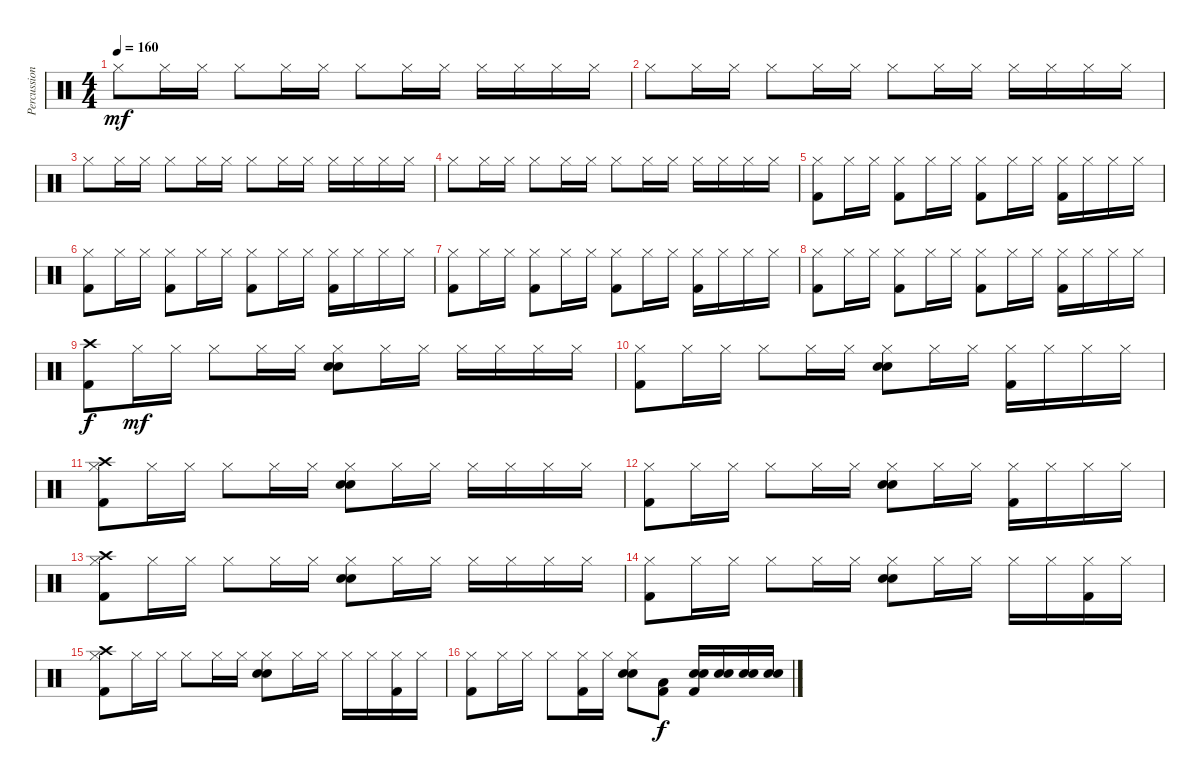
\track ("Percussion" "Percussion") {instrument percussion}
\staff {score}
\articulation defaults
\ts (4 4)
\section ("" "")
\tempo 160
\clef neutral
\ks c "Hi-Hat (closed)".8{dy mf} "Hi-Hat (closed)".16 "Hi-Hat (closed)".16 "Hi-Hat (closed)".8 "Hi-Hat (closed)".16 "Hi-Hat (closed)".16 "Hi-Hat (closed)".8 "Hi-Hat (closed)".16 "Hi-Hat (closed)".16 "Hi-Hat (closed)".16 "Hi-Hat (closed)".16 "Hi-Hat (closed)".16 "Hi-Hat (closed)".16
|
"Hi-Hat (closed)".8 "Hi-Hat (closed)".16 "Hi-Hat (closed)".16 "Hi-Hat (closed)".8 "Hi-Hat (closed)".16 "Hi-Hat (closed)".16 "Hi-Hat (closed)".8 "Hi-Hat (closed)".16 "Hi-Hat (closed)".16 "Hi-Hat (closed)".16 "Hi-Hat (closed)".16 "Hi-Hat (closed)".16 "Hi-Hat (closed)".16 |
"Hi-Hat (closed)".8 "Hi-Hat (closed)".16 "Hi-Hat (closed)".16 "Hi-Hat (closed)".8 "Hi-Hat (closed)".16 "Hi-Hat (closed)".16 "Hi-Hat (closed)".8 "Hi-Hat (closed)".16 "Hi-Hat (closed)".16 "Hi-Hat (closed)".16 "Hi-Hat (closed)".16 "Hi-Hat (closed)".16 "Hi-Hat (closed)".16 |
"Hi-Hat (closed)".8 "Hi-Hat (closed)".16 "Hi-Hat (closed)".16 "Hi-Hat (closed)".8 "Hi-Hat (closed)".16 "Hi-Hat (closed)".16 "Hi-Hat (closed)".8 "Hi-Hat (closed)".16 "Hi-Hat (closed)".16 "Hi-Hat (closed)".16 "Hi-Hat (closed)".16 "Hi-Hat (closed)".16 "Hi-Hat (closed)".16 |
("Hi-Hat (closed)" "Kick (hit) 2").8 "Hi-Hat (closed)".16 "Hi-Hat (closed)".16 ("Hi-Hat (closed)" "Kick (hit) 2").8 "Hi-Hat (closed)".16 "Hi-Hat (closed)".16 ("Hi-Hat (closed)" "Kick (hit) 2").8 "Hi-Hat (closed)".16 "Hi-Hat (closed)".16 ("Hi-Hat (closed)" "Kick (hit) 2").16 "Hi-Hat (closed)".16 "Hi-Hat (closed)".16 "Hi-Hat (closed)".16 |
("Hi-Hat (closed)" "Kick (hit) 2").8 "Hi-Hat (closed)".16 "Hi-Hat (closed)".16 ("Hi-Hat (closed)" "Kick (hit) 2").8 "Hi-Hat (closed)".16 "Hi-Hat (closed)".16 ("Hi-Hat (closed)" "Kick (hit) 2").8 "Hi-Hat (closed)".16 "Hi-Hat (closed)".16 ("Hi-Hat (closed)" "Kick (hit) 2").16 "Hi-Hat (closed)".16 "Hi-Hat (closed)".16 "Hi-Hat (closed)".16 |
("Hi-Hat (closed)" "Kick (hit) 2").8 "Hi-Hat (closed)".16 "Hi-Hat (closed)".16 ("Hi-Hat (closed)" "Kick (hit) 2").8 "Hi-Hat (closed)".16 "Hi-Hat (closed)".16 ("Hi-Hat (closed)" "Kick (hit) 2").8 "Hi-Hat (closed)".16 "Hi-Hat (closed)".16 ("Hi-Hat (closed)" "Kick (hit) 2").16 "Hi-Hat (closed)".16 "Hi-Hat (closed)".16 "Hi-Hat (closed)".16 |
("Hi-Hat (closed)" "Kick (hit) 2").8 "Hi-Hat (closed)".16 "Hi-Hat (closed)".16 ("Hi-Hat (closed)" "Kick (hit) 2").8 "Hi-Hat (closed)".16 "Hi-Hat (closed)".16 ("Hi-Hat (closed)" "Kick (hit) 2").8 "Hi-Hat (closed)".16 "Hi-Hat (closed)".16 ("Hi-Hat (closed)" "Kick (hit) 2").16 "Hi-Hat (closed)".16 "Hi-Hat (closed)".16 "Hi-Hat (closed)".16 |
\section ("" "")
("Crash high (hit)" "Kick (hit) 2").8{dy f} "Hi-Hat (closed)".16{dy mf} "Hi-Hat (closed)".16 "Hi-Hat (closed)".8 "Hi-Hat (closed)".16 "Hi-Hat (closed)".16 ("Hi-Hat (closed)" "Electric Snare (hit)" "Snare (hit) 2").8 "Hi-Hat (closed)".16 "Hi-Hat (closed)".16 "Hi-Hat (closed)".16 "Hi-Hat (closed)".16 "Hi-Hat (closed)".16 "Hi-Hat (closed)".16 |
("Hi-Hat (closed)" "Kick (hit) 2").8 "Hi-Hat (closed)".16 "Hi-Hat (closed)".16 "Hi-Hat (closed)".8 "Hi-Hat (closed)".16 "Hi-Hat (closed)".16 ("Hi-Hat (closed)" "Electric Snare (hit)" "Snare (hit) 2").8 "Hi-Hat (closed)".16 "Hi-Hat (closed)".16 ("Hi-Hat (closed)" "Kick (hit) 2").16 "Hi-Hat (closed)".16 "Hi-Hat (closed)".16 "Hi-Hat (closed)".16 |
("Crash high (hit)" "Hi-Hat (closed)" "Kick (hit) 2").8 "Hi-Hat (closed)".16 "Hi-Hat (closed)".16 "Hi-Hat (closed)".8 "Hi-Hat (closed)".16 "Hi-Hat (closed)".16 ("Hi-Hat (closed)" "Electric Snare (hit)" "Snare (hit) 2").8 "Hi-Hat (closed)".16 "Hi-Hat (closed)".16 "Hi-Hat (closed)".16 "Hi-Hat (closed)".16 "Hi-Hat (closed)".16 "Hi-Hat (closed)".16 |
("Hi-Hat (closed)" "Kick (hit) 2").8 "Hi-Hat (closed)".16 "Hi-Hat (closed)".16 "Hi-Hat (closed)".8 "Hi-Hat (closed)".16 "Hi-Hat (closed)".16 ("Hi-Hat (closed)" "Electric Snare (hit)" "Snare (hit) 2").8 "Hi-Hat (closed)".16 "Hi-Hat (closed)".16 ("Hi-Hat (closed)" "Kick (hit) 2").16 "Hi-Hat (closed)".16 "Hi-Hat (closed)".16 "Hi-Hat (closed)".16 |
("Crash high (hit)" "Hi-Hat (closed)" "Kick (hit) 2").8 "Hi-Hat (closed)".16 "Hi-Hat (closed)".16 "Hi-Hat (closed)".8 "Hi-Hat (closed)".16 "Hi-Hat (closed)".16 ("Hi-Hat (closed)" "Electric Snare (hit)" "Snare (hit) 2").8 "Hi-Hat (closed)".16 "Hi-Hat (closed)".16 "Hi-Hat (closed)".16 "Hi-Hat (closed)".16 "Hi-Hat (closed)".16 "Hi-Hat (closed)".16 |
("Hi-Hat (closed)" "Kick (hit) 2").8 "Hi-Hat (closed)".16 "Hi-Hat (closed)".16 "Hi-Hat (closed)".8 "Hi-Hat (closed)".16 "Hi-Hat (closed)".16 ("Hi-Hat (closed)" "Electric Snare (hit)" "Snare (hit) 2").8 "Hi-Hat (closed)".16 "Hi-Hat (closed)".16 "Hi-Hat (closed)".16 "Hi-Hat (closed)".16 ("Hi-Hat (closed)" "Kick (hit) 2").16 "Hi-Hat (closed)".16 |
("Crash high (hit)" "Hi-Hat (closed)" "Kick (hit) 2").8 "Hi-Hat (closed)".16 "Hi-Hat (closed)".16 "Hi-Hat (closed)".8 "Hi-Hat (closed)".16 "Hi-Hat (closed)".16 ("Hi-Hat (closed)" "Electric Snare (hit)" "Snare (hit) 2").8 "Hi-Hat (closed)".16 "Hi-Hat (closed)".16 "Hi-Hat (closed)".16 "Hi-Hat (closed)".16 ("Hi-Hat (closed)" "Kick (hit) 2").16 "Hi-Hat (closed)".16 |
("Hi-Hat (closed)" "Kick (hit) 2").8 "Hi-Hat (closed)".16 "Hi-Hat (closed)".16 "Hi-Hat (closed)".8 ("Hi-Hat (closed)" "Kick (hit) 2").16 "Hi-Hat (closed)".16 ("Hi-Hat (closed)" "Electric Snare (hit)" "Snare (hit) 2").8 ("Low Tom (hit)" "Kick (hit) 2").8{dy f} ("Electric Snare (hit)" "Snare (hit) 2" "Kick (hit) 2").16 ("Electric Snare (hit)" "Snare (hit) 2").16 ("Electric Snare (hit)" "Snare (hit) 2").16 ("Electric Snare (hit)" "Snare (hit) 2").16
